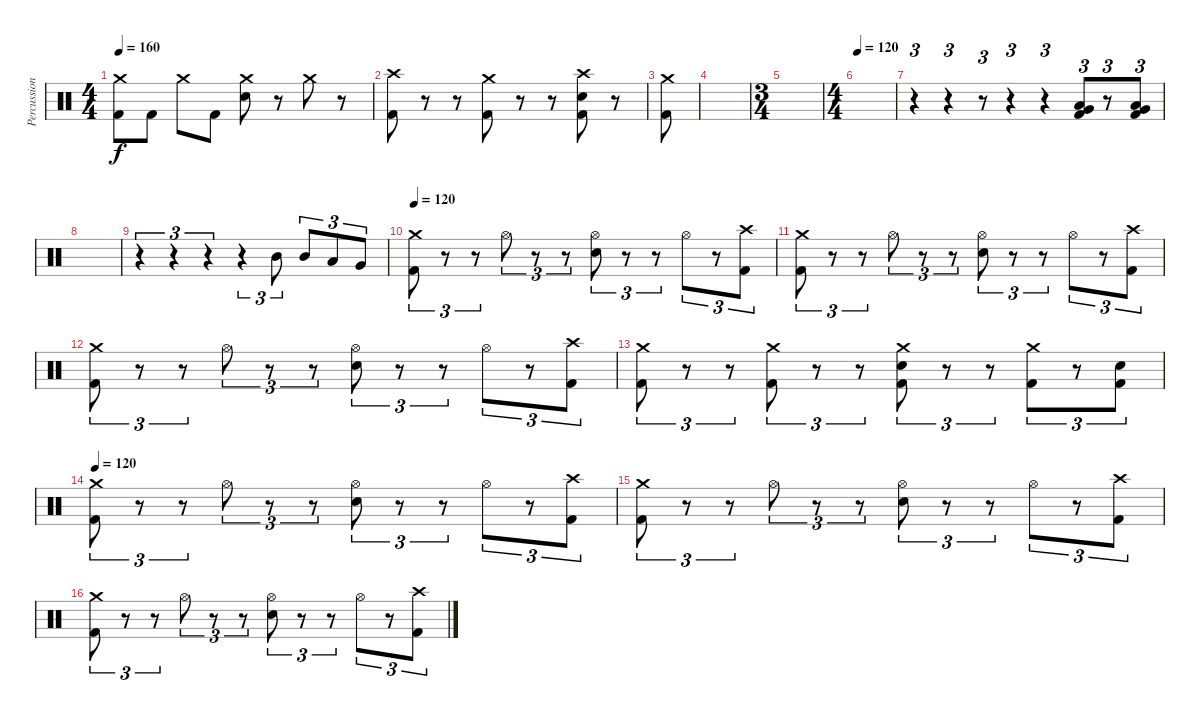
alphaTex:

\track ("Percussion" "Percussion") {instrument percussion}
\staff {score}
\articulation defaults
\ts (4 4)
\tempo 160
\clef neutral
\ks c
("Crash medium (hit)" "Kick (hit) 2").8{dy f} "Kick (hit) 2".8 "Crash medium (hit)".8 "Kick (hit) 2".8 ("Crash medium (hit)" "Electric Snare (hit)").8 r.8 "Crash medium (hit)".8 r.8 |
("Crash high (hit)" "Kick (hit) 2").8 r.8 r.8 ("Crash medium (hit)" "Kick (hit) 2").8 r.8 r.8 ("Crash high (hit)" "Electric Snare (hit)" "Kick (hit) 2").8 r.8 |
("Crash medium (hit)" "Kick (hit) 2").8 |
|
\ts (3 4)
|
\ts (4 4)
\tempo 120
|
r.4{tu (3 2)} r.4{tu (3 2)} r.8{tu (3 2)} r.4{tu (3 2)} r.4{tu (3 2)} ("Low Floor Tom (hit)" "Very Low Tom (hit)" "Kick (hit) 2").8{tu (3 2)} r.8{tu (3 2)} ("Low Floor Tom (hit)" "Very Low Tom (hit)" "Kick (hit) 2").8{tu (3 2)} |
|
r.4{tu (3 2)} r.4{tu (3 2)} r.4{tu (3 2)} r.4{tu (3 2)} "Mid Tom (hit)".8{tu (3 2)} "Mid Tom (hit)".8{tu (3 2)} "Low Tom (hit)".8{tu (3 2)} "Very Low Tom (hit)".8{tu (3 2)} |
\tempo 120
("Crash medium (hit)" "Kick (hit) 2").8{tu (3 2)} r.8{tu (3 2)} r.8{tu (3 2)} "Hi-Hat (open)".8{tu (3 2)} r.8{tu (3 2)} r.8{tu (3 2)} ("Hi-Hat (open)" "Electric Snare (hit)").8{tu (3 2)} r.8{tu (3 2)} r.8{tu (3 2)} "Hi-Hat (open)".8{tu (3 2)} r.8{tu (3 2)} ("Crash high (hit)" "Kick (hit) 2").8{tu (3 2)} |
("Crash medium (hit)" "Kick (hit) 2").8{tu (3 2)} r.8{tu (3 2)} r.8{tu (3 2)} "Hi-Hat (open)".8{tu (3 2)} r.8{tu (3 2)} r.8{tu (3 2)} ("Hi-Hat (open)" "Electric Snare (hit)").8{tu (3 2)} r.8{tu (3 2)} r.8{tu (3 2)} "Hi-Hat (open)".8{tu (3 2)} r.8{tu (3 2)} ("Crash high (hit)" "Kick (hit) 2").8{tu (3 2)} |
("Crash medium (hit)" "Kick (hit) 2").8{tu (3 2)} r.8{tu (3 2)} r.8{tu (3 2)} "Hi-Hat (open)".8{tu (3 2)} r.8{tu (3 2)} r.8{tu (3 2)} ("Hi-Hat (open)" "Electric Snare (hit)").8{tu (3 2)} r.8{tu (3 2)} r.8{tu (3 2)} "Hi-Hat (open)".8{tu (3 2)} r.8{tu (3 2)} ("Crash high (hit)" "Kick (hit) 2").8{tu (3 2)} |
("Crash medium (hit)" "Kick (hit) 2").8{tu (3 2)} r.8{tu (3 2)} r.8{tu (3 2)} ("Crash medium (hit)" "Kick (hit) 2").8{tu (3 2)} r.8{tu (3 2)} r.8{tu (3 2)} ("Crash medium (hit)" "Electric Snare (hit)" "Kick (hit) 2").8{tu (3 2)} r.8{tu (3 2)} r.8{tu (3 2)} ("Crash medium (hit)" "Kick (hit) 2").8{tu (3 2)} r.8{tu (3 2)} ("Electric Snare (hit)" "Kick (hit) 2").8{tu (3 2)} |
\tempo 120
("Crash medium (hit)" "Kick (hit) 2").8{tu (3 2)} r.8{tu (3 2)} r.8{tu (3 2)} "Hi-Hat (open)".8{tu (3 2)} r.8{tu (3 2)} r.8{tu (3 2)} ("Hi-Hat (open)" "Electric Snare (hit)").8{tu (3 2)} r.8{tu (3 2)} r.8{tu (3 2)} "Hi-Hat (open)".8{tu (3 2)} r.8{tu (3 2)} ("Crash high (hit)" "Kick (hit) 2").8{tu (3 2)} |
("Crash medium (hit)" "Kick (hit) 2").8{tu (3 2)} r.8{tu (3 2)} r.8{tu (3 2)} "Hi-Hat (open)".8{tu (3 2)} r.8{tu (3 2)} r.8{tu (3 2)} ("Hi-Hat (open)" "Electric Snare (hit)").8{tu (3 2)} r.8{tu (3 2)} r.8{tu (3 2)} "Hi-Hat (open)".8{tu (3 2)} r.8{tu (3 2)} ("Crash high (hit)" "Kick (hit) 2").8{tu (3 2)} |
("Crash medium (hit)" "Kick (hit) 2").8{tu (3 2)} r.8{tu (3 2)} r.8{tu (3 2)} "Hi-Hat (open)".8{tu (3 2)} r.8{tu (3 2)} r.8{tu (3 2)} ("Hi-Hat (open)" "Electric Snare (hit)").8{tu (3 2)} r.8{tu (3 2)} r.8{tu (3 2)} "Hi-Hat (open)".8{tu (3 2)} r.8{tu (3 2)} ("Crash high (hit)" "Kick (hit) 2").8{tu (3 2)}
